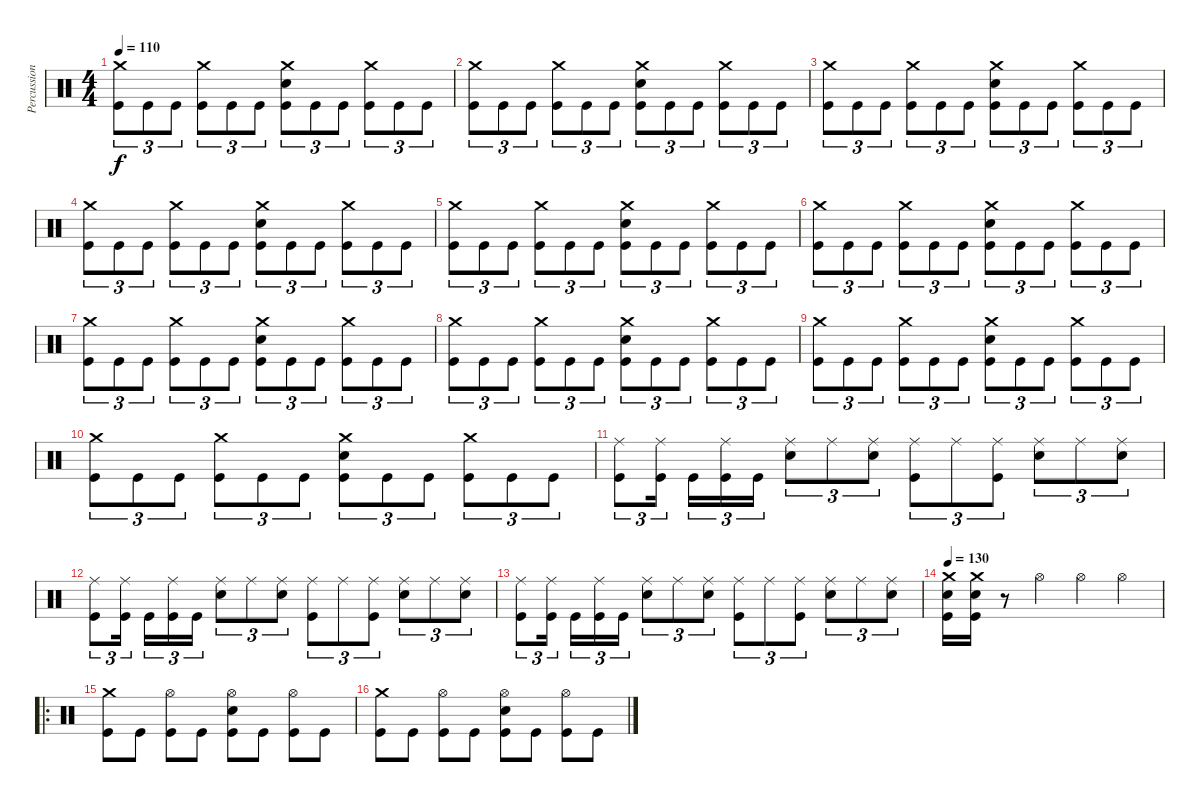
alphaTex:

\track ("Percussion" "Percussion") {instrument percussion}
\staff {score}
\articulation defaults
\ts (4 4)
\tempo 110
\clef neutral
\ks c
("Crash medium (hit)" "Kick (hit)").8{tu (3 2) dy f} "Kick (hit)".8{tu (3 2)} "Kick (hit)".8{tu (3 2)} ("Crash medium (hit)" "Kick (hit)").8{tu (3 2)} "Kick (hit)".8{tu (3 2)} "Kick (hit)".8{tu (3 2)} ("Crash medium (hit)" "Snare (hit) 2" "Kick (hit)").8{tu (3 2)} "Kick (hit)".8{tu (3 2)} "Kick (hit)".8{tu (3 2)} ("Crash medium (hit)" "Kick (hit)").8{tu (3 2)} "Kick (hit)".8{tu (3 2)} "Kick (hit)".8{tu (3 2)} |
("Crash medium (hit)" "Kick (hit)").8{tu (3 2)} "Kick (hit)".8{tu (3 2)} "Kick (hit)".8{tu (3 2)} ("Crash medium (hit)" "Kick (hit)").8{tu (3 2)} "Kick (hit)".8{tu (3 2)} "Kick (hit)".8{tu (3 2)} ("Crash medium (hit)" "Snare (hit) 2" "Kick (hit)").8{tu (3 2)} "Kick (hit)".8{tu (3 2)} "Kick (hit)".8{tu (3 2)} ("Crash medium (hit)" "Kick (hit)").8{tu (3 2)} "Kick (hit)".8{tu (3 2)} "Kick (hit)".8{tu (3 2)} |
("Crash medium (hit)" "Kick (hit)").8{tu (3 2)} "Kick (hit)".8{tu (3 2)} "Kick (hit)".8{tu (3 2)} ("Crash medium (hit)" "Kick (hit)").8{tu (3 2)} "Kick (hit)".8{tu (3 2)} "Kick (hit)".8{tu (3 2)} ("Crash medium (hit)" "Snare (hit) 2" "Kick (hit)").8{tu (3 2)} "Kick (hit)".8{tu (3 2)} "Kick (hit)".8{tu (3 2)} ("Crash medium (hit)" "Kick (hit)").8{tu (3 2)} "Kick (hit)".8{tu (3 2)} "Kick (hit)".8{tu (3 2)} |
("Crash medium (hit)" "Kick (hit)").8{tu (3 2)} "Kick (hit)".8{tu (3 2)} "Kick (hit)".8{tu (3 2)} ("Crash medium (hit)" "Kick (hit)").8{tu (3 2)} "Kick (hit)".8{tu (3 2)} "Kick (hit)".8{tu (3 2)} ("Crash medium (hit)" "Snare (hit) 2" "Kick (hit)").8{tu (3 2)} "Kick (hit)".8{tu (3 2)} "Kick (hit)".8{tu (3 2)} ("Crash medium (hit)" "Kick (hit)").8{tu (3 2)} "Kick (hit)".8{tu (3 2)} "Kick (hit)".8{tu (3 2)} |
("Crash medium (hit)" "Kick (hit)").8{tu (3 2)} "Kick (hit)".8{tu (3 2)} "Kick (hit)".8{tu (3 2)} ("Crash medium (hit)" "Kick (hit)").8{tu (3 2)} "Kick (hit)".8{tu (3 2)} "Kick (hit)".8{tu (3 2)} ("Crash medium (hit)" "Snare (hit) 2" "Kick (hit)").8{tu (3 2)} "Kick (hit)".8{tu (3 2)} "Kick (hit)".8{tu (3 2)} ("Crash medium (hit)" "Kick (hit)").8{tu (3 2)} "Kick (hit)".8{tu (3 2)} "Kick (hit)".8{tu (3 2)} |
("Crash medium (hit)" "Kick (hit)").8{tu (3 2)} "Kick (hit)".8{tu (3 2)} "Kick (hit)".8{tu (3 2)} ("Crash medium (hit)" "Kick (hit)").8{tu (3 2)} "Kick (hit)".8{tu (3 2)} "Kick (hit)".8{tu (3 2)} ("Crash medium (hit)" "Snare (hit) 2" "Kick (hit)").8{tu (3 2)} "Kick (hit)".8{tu (3 2)} "Kick (hit)".8{tu (3 2)} ("Crash medium (hit)" "Kick (hit)").8{tu (3 2)} "Kick (hit)".8{tu (3 2)} "Kick (hit)".8{tu (3 2)} |
("Crash medium (hit)" "Kick (hit)").8{tu (3 2)} "Kick (hit)".8{tu (3 2)} "Kick (hit)".8{tu (3 2)} ("Crash medium (hit)" "Kick (hit)").8{tu (3 2)} "Kick (hit)".8{tu (3 2)} "Kick (hit)".8{tu (3 2)} ("Crash medium (hit)" "Snare (hit) 2" "Kick (hit)").8{tu (3 2)} "Kick (hit)".8{tu (3 2)} "Kick (hit)".8{tu (3 2)} ("Crash medium (hit)" "Kick (hit)").8{tu (3 2)} "Kick (hit)".8{tu (3 2)} "Kick (hit)".8{tu (3 2)} |
("Crash medium (hit)" "Kick (hit)").8{tu (3 2)} "Kick (hit)".8{tu (3 2)} "Kick (hit)".8{tu (3 2)} ("Crash medium (hit)" "Kick (hit)").8{tu (3 2)} "Kick (hit)".8{tu (3 2)} "Kick (hit)".8{tu (3 2)} ("Crash medium (hit)" "Snare (hit) 2" "Kick (hit)").8{tu (3 2)} "Kick (hit)".8{tu (3 2)} "Kick (hit)".8{tu (3 2)} ("Crash medium (hit)" "Kick (hit)").8{tu (3 2)} "Kick (hit)".8{tu (3 2)} "Kick (hit)".8{tu (3 2)} |
("Crash medium (hit)" "Kick (hit)").8{tu (3 2)} "Kick (hit)".8{tu (3 2)} "Kick (hit)".8{tu (3 2)} ("Crash medium (hit)" "Kick (hit)").8{tu (3 2)} "Kick (hit)".8{tu (3 2)} "Kick (hit)".8{tu (3 2)} ("Crash medium (hit)" "Snare (hit) 2" "Kick (hit)").8{tu (3 2)} "Kick (hit)".8{tu (3 2)} "Kick (hit)".8{tu (3 2)} ("Crash medium (hit)" "Kick (hit)").8{tu (3 2)} "Kick (hit)".8{tu (3 2)} "Kick (hit)".8{tu (3 2)} |
("Crash medium (hit)" "Kick (hit)").8{tu (3 2)} "Kick (hit)".8{tu (3 2)} "Kick (hit)".8{tu (3 2)} ("Crash medium (hit)" "Kick (hit)").8{tu (3 2)} "Kick (hit)".8{tu (3 2)} "Kick (hit)".8{tu (3 2)} ("Crash medium (hit)" "Snare (hit) 2" "Kick (hit)").8{tu (3 2)} "Kick (hit)".8{tu (3 2)} "Kick (hit)".8{tu (3 2)} ("Crash medium (hit)" "Kick (hit)").8{tu (3 2)} "Kick (hit)".8{tu (3 2)} "Kick (hit)".8{tu (3 2)} |
("Ride (middle)" "Kick (hit)").8{tu (3 2)} ("Ride (middle)" "Kick (hit)").16{tu (3 2) beam splitsecondary} "Kick (hit)".16{tu (3 2)} ("Ride (middle)" "Kick (hit)").16{tu (3 2)} "Kick (hit)".16{tu (3 2)} ("Ride (middle)" "Snare (hit) 2").8{tu (3 2)} "Ride (middle)".8{tu (3 2)} ("Ride (middle)" "Snare (hit) 2").8{tu (3 2)} ("Ride (middle)" "Kick (hit)").8{tu (3 2)} "Ride (middle)".8{tu (3 2)} ("Ride (middle)" "Kick (hit)").8{tu (3 2)} ("Ride (middle)" "Snare (hit) 2").8{tu (3 2)} "Ride (middle)".8{tu (3 2)} ("Ride (middle)" "Snare (hit) 2").8{tu (3 2)} |
("Ride (middle)" "Kick (hit)").8{tu (3 2)} ("Ride (middle)" "Kick (hit)").16{tu (3 2) beam splitsecondary} "Kick (hit)".16{tu (3 2)} ("Ride (middle)" "Kick (hit)").16{tu (3 2)} "Kick (hit)".16{tu (3 2)} ("Ride (middle)" "Snare (hit) 2").8{tu (3 2)} "Ride (middle)".8{tu (3 2)} ("Ride (middle)" "Snare (hit) 2").8{tu (3 2)} ("Ride (middle)" "Kick (hit)").8{tu (3 2)} "Ride (middle)".8{tu (3 2)} ("Ride (middle)" "Kick (hit)").8{tu (3 2)} ("Ride (middle)" "Snare (hit) 2").8{tu (3 2)} "Ride (middle)".8{tu (3 2)} ("Ride (middle)" "Snare (hit) 2").8{tu (3 2)} |
("Ride (middle)" "Kick (hit)").8{tu (3 2)} ("Ride (middle)" "Kick (hit)").16{tu (3 2) beam splitsecondary} "Kick (hit)".16{tu (3 2)} ("Ride (middle)" "Kick (hit)").16{tu (3 2)} "Kick (hit)".16{tu (3 2)} ("Ride (middle)" "Snare (hit) 2").8{tu (3 2)} "Ride (middle)".8{tu (3 2)} ("Ride (middle)" "Snare (hit) 2").8{tu (3 2)} ("Ride (middle)" "Kick (hit)").8{tu (3 2)} "Ride (middle)".8{tu (3 2)} ("Ride (middle)" "Kick (hit)").8{tu (3 2)} ("Ride (middle)" "Snare (hit) 2").8{tu (3 2)} "Ride (middle)".8{tu (3 2)} ("Ride (middle)" "Snare (hit) 2").8{tu (3 2)} |
\tempo 130
("Crash medium (hit)" "Snare (hit) 2" "Kick (hit)").16 ("Crash medium (hit)" "Snare (hit) 2" "Kick (hit)").16 r.8 "Hi-Hat (open)".4 "Hi-Hat (open)".4 "Hi-Hat (open)".4 |
\ro
("Crash medium (hit)" "Kick (hit)").8 "Kick (hit)".8 ("Hi-Hat (open)" "Kick (hit)").8 "Kick (hit)".8 ("Hi-Hat (open)" "Snare (hit) 2" "Kick (hit)").8 "Kick (hit)".8 ("Hi-Hat (open)" "Kick (hit)").8 "Kick (hit)".8 |
("Crash medium (hit)" "Kick (hit)").8 "Kick (hit)".8 ("Hi-Hat (open)" "Kick (hit)").8 "Kick (hit)".8 ("Hi-Hat (open)" "Snare (hit) 2" "Kick (hit)").8 "Kick (hit)".8 ("Hi-Hat (open)" "Kick (hit)").8 "Kick (hit)".8
